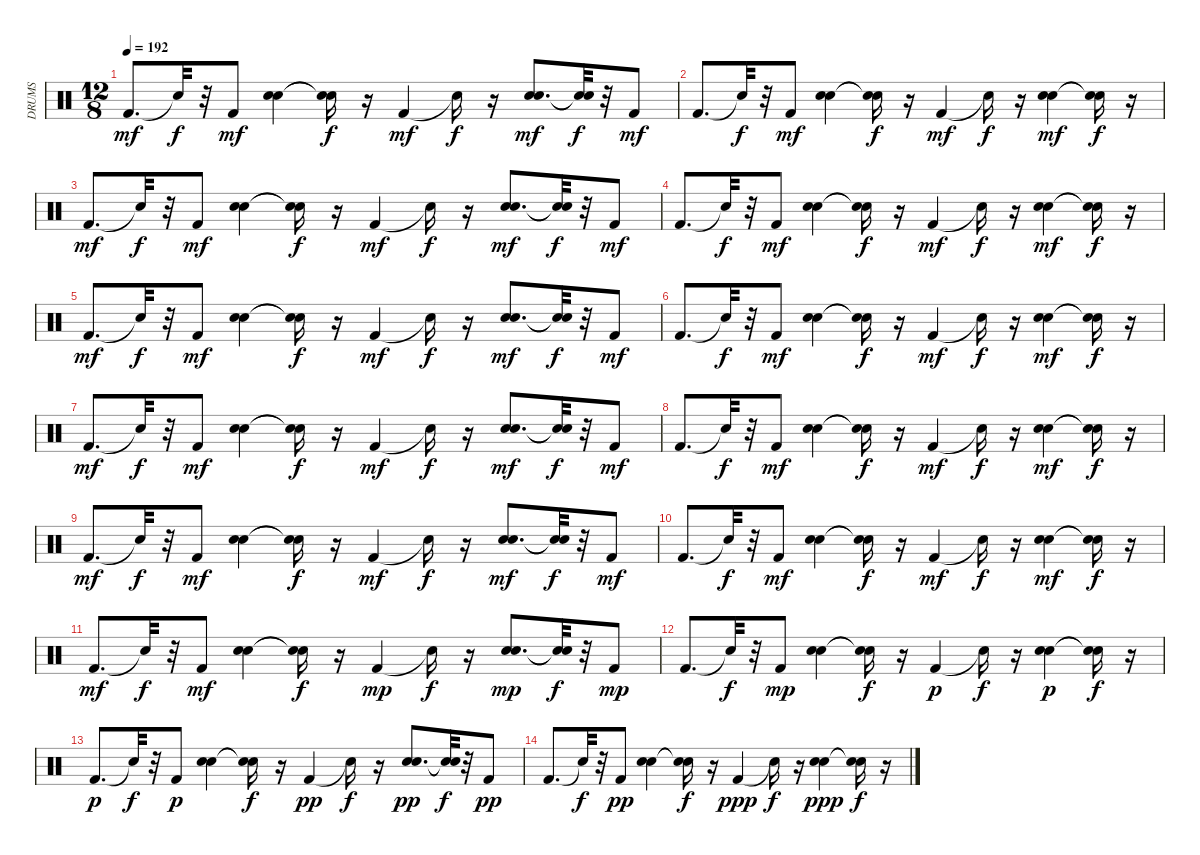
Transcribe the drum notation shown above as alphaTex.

\track ("DRUMS" "DRUMS") {instrument percussion}
\staff {score}
\articulation defaults
\ts (12 8)
\tempo 192
\clef neutral
\ks c "Kick (hit) 2".8{d dy mf} "Snare (hit)"{t}.32{dy f}
r.32 "Kick (hit) 2".8{dy mf} ("Hand Clap (hit)" "Snare (hit) 2").4 ("Snare (hit)"{t} "Snare (hit)"{t}).16{dy f} r.16 "Kick (hit) 2".4{dy mf} "Snare (hit)"{t}.16{dy f} r.16 ("Hand Clap (hit)" "Snare (hit) 2").8{d dy mf} ("Snare (hit)"{t} "Snare (hit)"{t}).32{dy f} r.32 "Kick (hit) 2".8{dy mf} |
"Kick (hit) 2".8{d} "Snare (hit)"{t}.32{dy f} r.32 "Kick (hit) 2".8{dy mf} ("Hand Clap (hit)" "Snare (hit) 2").4 ("Snare (hit)"{t} "Snare (hit)"{t}).16{dy f} r.16 "Kick (hit) 2".4{dy mf} "Snare (hit)"{t}.16{dy f} r.16 ("Hand Clap (hit)" "Snare (hit) 2").4{dy mf} ("Snare (hit)"{t} "Snare (hit)"{t}).16{dy f} r.16 |
"Kick (hit) 2".8{d dy mf} "Snare (hit)"{t}.32{dy f} r.32 "Kick (hit) 2".8{dy mf} ("Snare (hit) 2" "Hand Clap (hit)").4 ("Snare (hit)"{t} "Snare (hit)"{t}).16{dy f} r.16 "Kick (hit) 2".4{dy mf} "Snare (hit)"{t}.16{dy f} r.16 ("Snare (hit) 2" "Hand Clap (hit)").8{d dy mf} ("Snare (hit)"{t} "Snare (hit)"{t}).32{dy f} r.32 "Kick (hit) 2".8{dy mf} |
"Kick (hit) 2".8{d} "Snare (hit)"{t}.32{dy f} r.32 "Kick (hit) 2".8{dy mf} ("Snare (hit) 2" "Hand Clap (hit)").4 ("Snare (hit)"{t} "Snare (hit)"{t}).16{dy f} r.16 "Kick (hit) 2".4{dy mf} "Snare (hit)"{t}.16{dy f} r.16 ("Snare (hit) 2" "Hand Clap (hit)").4{dy mf} ("Snare (hit)"{t} "Snare (hit)"{t}).16{dy f} r.16 |
"Kick (hit) 2".8{d dy mf} "Snare (hit)"{t}.32{dy f} r.32 "Kick (hit) 2".8{dy mf} ("Snare (hit) 2" "Hand Clap (hit)").4 ("Snare (hit)"{t} "Snare (hit)"{t}).16{dy f} r.16 "Kick (hit) 2".4{dy mf} "Snare (hit)"{t}.16{dy f} r.16 ("Snare (hit) 2" "Hand Clap (hit)").8{d dy mf} ("Snare (hit)"{t} "Snare (hit)"{t}).32{dy f} r.32 "Kick (hit) 2".8{dy mf} |
"Kick (hit) 2".8{d} "Snare (hit)"{t}.32{dy f} r.32 "Kick (hit) 2".8{dy mf} ("Snare (hit) 2" "Hand Clap (hit)").4 ("Snare (hit)"{t} "Snare (hit)"{t}).16{dy f} r.16 "Kick (hit) 2".4{dy mf} "Snare (hit)"{t}.16{dy f} r.16 ("Snare (hit) 2" "Hand Clap (hit)").4{dy mf} ("Snare (hit)"{t} "Snare (hit)"{t}).16{dy f} r.16 |
"Kick (hit) 2".8{d dy mf} "Snare (hit)"{t}.32{dy f} r.32 "Kick (hit) 2".8{dy mf} ("Snare (hit) 2" "Hand Clap (hit)").4 ("Snare (hit)"{t} "Snare (hit)"{t}).16{dy f} r.16 "Kick (hit) 2".4{dy mf} "Snare (hit)"{t}.16{dy f} r.16 ("Snare (hit) 2" "Hand Clap (hit)").8{d dy mf} ("Snare (hit)"{t} "Snare (hit)"{t}).32{dy f} r.32 "Kick (hit) 2".8{dy mf} |
"Kick (hit) 2".8{d} "Snare (hit)"{t}.32{dy f} r.32 "Kick (hit) 2".8{dy mf} ("Snare (hit) 2" "Hand Clap (hit)").4 ("Snare (hit)"{t} "Snare (hit)"{t}).16{dy f} r.16 "Kick (hit) 2".4{dy mf} "Snare (hit)"{t}.16{dy f} r.16 ("Snare (hit) 2" "Hand Clap (hit)").4{dy mf} ("Snare (hit)"{t} "Snare (hit)"{t}).16{dy f} r.16 |
"Kick (hit) 2".8{d dy mf} "Snare (hit)"{t}.32{dy f} r.32 "Kick (hit) 2".8{dy mf} ("Snare (hit) 2" "Hand Clap (hit)").4 ("Snare (hit)"{t} "Snare (hit)"{t}).16{dy f} r.16 "Kick (hit) 2".4{dy mf} "Snare (hit)"{t}.16{dy f} r.16 ("Snare (hit) 2" "Hand Clap (hit)").8{d dy mf} ("Snare (hit)"{t} "Snare (hit)"{t}).32{dy f} r.32 "Kick (hit) 2".8{dy mf} |
"Kick (hit) 2".8{d} "Snare (hit)"{t}.32{dy f} r.32 "Kick (hit) 2".8{dy mf} ("Snare (hit) 2" "Hand Clap (hit)").4 ("Snare (hit)"{t} "Snare (hit)"{t}).16{dy f} r.16 "Kick (hit) 2".4{dy mf} "Snare (hit)"{t}.16{dy f} r.16 ("Snare (hit) 2" "Hand Clap (hit)").4{dy mf} ("Snare (hit)"{t} "Snare (hit)"{t}).16{dy f} r.16 |
"Kick (hit) 2".8{d dy mf} "Snare (hit)"{t}.32{dy f} r.32 "Kick (hit) 2".8{dy mf} ("Hand Clap (hit)" "Snare (hit) 2").4 ("Snare (hit)"{t} "Snare (hit)"{t}).16{dy f} r.16 "Kick (hit) 2".4{dy mp} "Snare (hit)"{t}.16{dy f} r.16 ("Hand Clap (hit)" "Snare (hit) 2").8{d dy mp} ("Snare (hit)"{t} "Snare (hit)"{t}).32{dy f} r.32 "Kick (hit) 2".8{dy mp} |
"Kick (hit) 2".8{d} "Snare (hit)"{t}.32{dy f} r.32 "Kick (hit) 2".8{dy mp} ("Hand Clap (hit)" "Snare (hit) 2").4 ("Snare (hit)"{t} "Snare (hit)"{t}).16{dy f} r.16 "Kick (hit) 2".4{dy p} "Snare (hit)"{t}.16{dy f} r.16 ("Hand Clap (hit)" "Snare (hit) 2").4{dy p} ("Snare (hit)"{t} "Snare (hit)"{t}).16{dy f} r.16 |
"Kick (hit) 2".8{d dy p} "Snare (hit)"{t}.32{dy f} r.32 "Kick (hit) 2".8{dy p} ("Hand Clap (hit)" "Snare (hit) 2").4 ("Snare (hit)"{t} "Snare (hit)"{t}).16{dy f} r.16 "Kick (hit) 2".4{dy pp} "Snare (hit)"{t}.16{dy f} r.16 ("Hand Clap (hit)" "Snare (hit) 2").8{d dy pp} ("Snare (hit)"{t} "Snare (hit)"{t}).32{dy f} r.32 "Kick (hit) 2".8{dy pp} |
"Kick (hit) 2".8{d} "Snare (hit)"{t}.32{dy f} r.32 "Kick (hit) 2".8{dy pp} ("Hand Clap (hit)" "Snare (hit) 2").4 ("Snare (hit)"{t} "Snare (hit)"{t}).16{dy f} r.16 "Kick (hit) 2".4{dy ppp} "Snare (hit)"{t}.16{dy f} r.16 ("Hand Clap (hit)" "Snare (hit) 2").4{dy ppp} ("Snare (hit)"{t} "Snare (hit)"{t}).16{dy f} r.16
